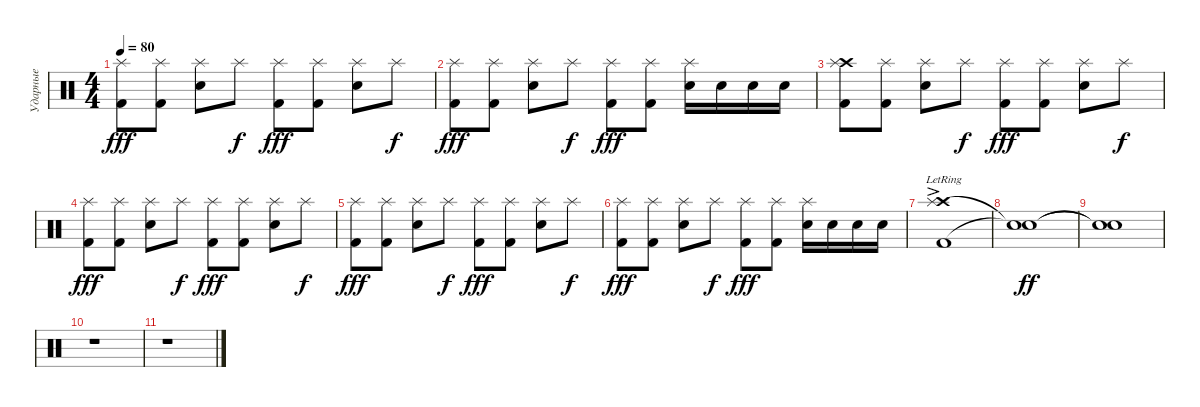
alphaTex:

\track ("Ударные" "Ударные") {instrument percussion}
\staff {score}
\articulation defaults
\ts (4 4)
\tempo 80
\clef neutral
\ks c
("Kick (hit) 2" "Splash (hit)").8{dy fff} ("Kick (hit) 2" "Splash (hit)").8 ("Snare (hit) 2" "Splash (hit)").8 "Splash (hit)".8{dy f} ("Kick (hit) 2" "Splash (hit)").8{dy fff} ("Kick (hit) 2" "Splash (hit)").8 ("Snare (hit) 2" "Splash (hit)").8 "Splash (hit)".8{dy f} |
("Kick (hit) 2" "Splash (hit)").8{dy fff} ("Kick (hit) 2" "Splash (hit)").8 ("Snare (hit) 2" "Splash (hit)").8 "Splash (hit)".8{dy f} ("Kick (hit) 2" "Splash (hit)").8{dy fff} ("Kick (hit) 2" "Splash (hit)").8 ("Snare (hit) 2" "Splash (hit)").16 "Snare (hit) 2".16 "Snare (hit) 2".16 "Snare (hit) 2".16 |
("Crash high (hit)" "Kick (hit) 2" "Splash (hit)").8 ("Kick (hit) 2" "Splash (hit)").8 ("Snare (hit) 2" "Splash (hit)").8 "Splash (hit)".8{dy f} ("Kick (hit) 2" "Splash (hit)").8{dy fff} ("Kick (hit) 2" "Splash (hit)").8 ("Snare (hit) 2" "Splash (hit)").8 "Splash (hit)".8{dy f} |
("Kick (hit) 2" "Splash (hit)").8{dy fff} ("Kick (hit) 2" "Splash (hit)").8 ("Snare (hit) 2" "Splash (hit)").8 "Splash (hit)".8{dy f} ("Kick (hit) 2" "Splash (hit)").8{dy fff} ("Kick (hit) 2" "Splash (hit)").8 ("Snare (hit) 2" "Splash (hit)").8 "Splash (hit)".8{dy f} |
("Kick (hit) 2" "Splash (hit)").8{dy fff} ("Kick (hit) 2" "Splash (hit)").8 ("Snare (hit) 2" "Splash (hit)").8 "Splash (hit)".8{dy f} ("Kick (hit) 2" "Splash (hit)").8{dy fff} ("Kick (hit) 2" "Splash (hit)").8 ("Snare (hit) 2" "Splash (hit)").8 "Splash (hit)".8{dy f} |
("Kick (hit) 2" "Splash (hit)").8{dy fff} ("Kick (hit) 2" "Splash (hit)").8 ("Snare (hit) 2" "Splash (hit)").8 "Splash (hit)".8{dy f} ("Kick (hit) 2" "Splash (hit)").8{dy fff} ("Kick (hit) 2" "Splash (hit)").8 ("Snare (hit) 2" "Splash (hit)").16 "Snare (hit) 2".16 "Snare (hit) 2".16 "Snare (hit) 2".16 |
("Crash high (hit)"{ac lr} "Kick (hit) 2"{ac} "Splash (hit)"{ac}).1 |
("Snare (hit)"{t} "Snare (hit)"{t}).1{dy ff} |
("Snare (hit)"{t} "Snare (hit)"{t}).1 |
r.1 |
r.1
